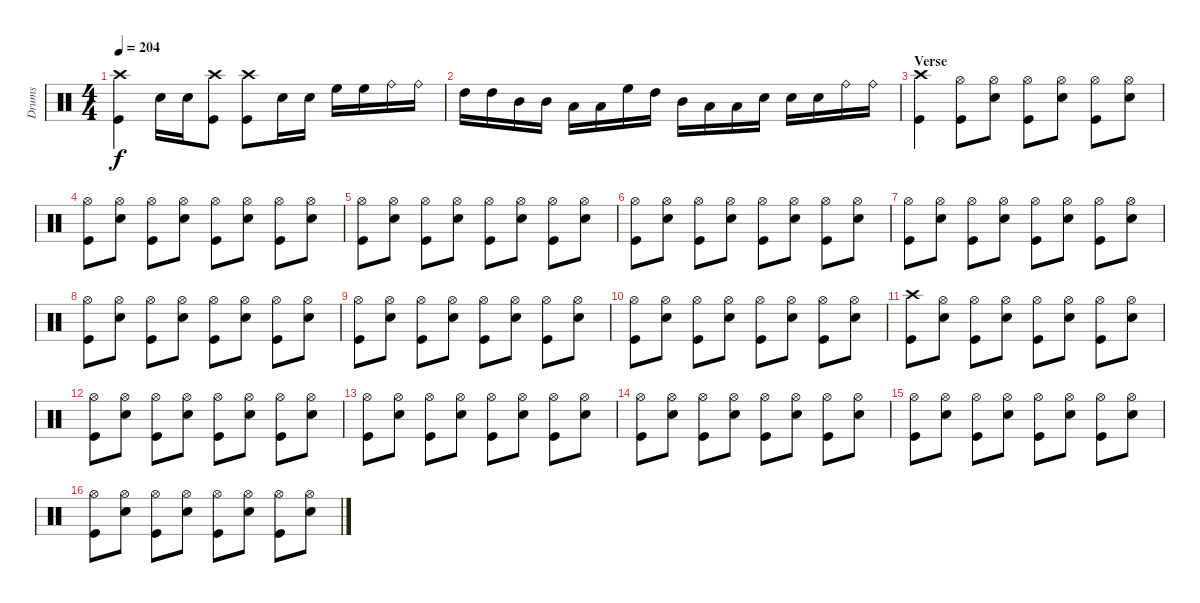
\track ("Drums" "Drums") {instrument percussion}
\staff {score}
\articulation defaults
\ts (4 4)
\tempo 204
\clef neutral
\ks c
("Crash high (hit)" "Kick (hit)").4{dy f} "Electric Snare (hit)".16 "Electric Snare (hit)".16 ("Crash high (hit)" "Kick (hit)").8 ("Crash high (hit)" "Kick (hit)").8 "Electric Snare (hit)".16 "Electric Snare (hit)".16 "High Floor Tom (hit)".16 "High Floor Tom (hit)".16 "Ride (bell)".16 "Ride (bell)".16 |
"High Tom (hit)".16 "High Tom (hit)".16 "Mid Tom (hit)".16 "Mid Tom (hit)".16 "Low Tom (hit)".16 "Low Tom (hit)".16 "High Floor Tom (hit)".16 "High Tom (hit)".16 "Mid Tom (hit)".16 "Low Tom (hit)".16 "Low Tom (hit)".16 "Electric Snare (hit)".16 "Electric Snare (hit)".16 "Electric Snare (hit)".16 "Ride (bell)".16 "Ride (bell)".16 |
\section ("" "Verse")
("Crash high (hit)" "Kick (hit)").4 ("Hi-Hat (open)" "Kick (hit)").8 ("Hi-Hat (open)" "Electric Snare (hit)").8 ("Hi-Hat (open)" "Kick (hit)").8 ("Hi-Hat (open)" "Electric Snare (hit)").8 ("Hi-Hat (open)" "Kick (hit)").8 ("Hi-Hat (open)" "Electric Snare (hit)").8 |
("Hi-Hat (open)" "Kick (hit)").8 ("Hi-Hat (open)" "Electric Snare (hit)").8 ("Hi-Hat (open)" "Kick (hit)").8 ("Hi-Hat (open)" "Electric Snare (hit)").8 ("Hi-Hat (open)" "Kick (hit)").8 ("Hi-Hat (open)" "Electric Snare (hit)").8 ("Hi-Hat (open)" "Kick (hit)").8 ("Hi-Hat (open)" "Electric Snare (hit)").8 |
("Hi-Hat (open)" "Kick (hit)").8 ("Hi-Hat (open)" "Electric Snare (hit)").8 ("Hi-Hat (open)" "Kick (hit)").8 ("Hi-Hat (open)" "Electric Snare (hit)").8 ("Hi-Hat (open)" "Kick (hit)").8 ("Hi-Hat (open)" "Electric Snare (hit)").8 ("Hi-Hat (open)" "Kick (hit)").8 ("Hi-Hat (open)" "Electric Snare (hit)").8 |
("Hi-Hat (open)" "Kick (hit)").8 ("Hi-Hat (open)" "Electric Snare (hit)").8 ("Hi-Hat (open)" "Kick (hit)").8 ("Hi-Hat (open)" "Electric Snare (hit)").8 ("Hi-Hat (open)" "Kick (hit)").8 ("Hi-Hat (open)" "Electric Snare (hit)").8 ("Hi-Hat (open)" "Kick (hit)").8 ("Hi-Hat (open)" "Electric Snare (hit)").8 |
("Hi-Hat (open)" "Kick (hit)").8 ("Hi-Hat (open)" "Electric Snare (hit)").8 ("Hi-Hat (open)" "Kick (hit)").8 ("Hi-Hat (open)" "Electric Snare (hit)").8 ("Hi-Hat (open)" "Kick (hit)").8 ("Hi-Hat (open)" "Electric Snare (hit)").8 ("Hi-Hat (open)" "Kick (hit)").8 ("Hi-Hat (open)" "Electric Snare (hit)").8 |
("Hi-Hat (open)" "Kick (hit)").8 ("Hi-Hat (open)" "Electric Snare (hit)").8 ("Hi-Hat (open)" "Kick (hit)").8 ("Hi-Hat (open)" "Electric Snare (hit)").8 ("Hi-Hat (open)" "Kick (hit)").8 ("Hi-Hat (open)" "Electric Snare (hit)").8 ("Hi-Hat (open)" "Kick (hit)").8 ("Hi-Hat (open)" "Electric Snare (hit)").8 |
("Hi-Hat (open)" "Kick (hit)").8 ("Hi-Hat (open)" "Electric Snare (hit)").8 ("Hi-Hat (open)" "Kick (hit)").8 ("Hi-Hat (open)" "Electric Snare (hit)").8 ("Hi-Hat (open)" "Kick (hit)").8 ("Hi-Hat (open)" "Electric Snare (hit)").8 ("Hi-Hat (open)" "Kick (hit)").8 ("Hi-Hat (open)" "Electric Snare (hit)").8 |
("Hi-Hat (open)" "Kick (hit)").8 ("Hi-Hat (open)" "Electric Snare (hit)").8 ("Hi-Hat (open)" "Kick (hit)").8 ("Hi-Hat (open)" "Electric Snare (hit)").8 ("Hi-Hat (open)" "Kick (hit)").8 ("Hi-Hat (open)" "Electric Snare (hit)").8 ("Hi-Hat (open)" "Kick (hit)").8 ("Hi-Hat (open)" "Electric Snare (hit)").8 |
("Crash high (hit)" "Kick (hit)").8 ("Hi-Hat (open)" "Electric Snare (hit)").8 ("Hi-Hat (open)" "Kick (hit)").8 ("Hi-Hat (open)" "Electric Snare (hit)").8 ("Hi-Hat (open)" "Kick (hit)").8 ("Hi-Hat (open)" "Electric Snare (hit)").8 ("Hi-Hat (open)" "Kick (hit)").8 ("Hi-Hat (open)" "Electric Snare (hit)").8 |
("Hi-Hat (open)" "Kick (hit)").8 ("Hi-Hat (open)" "Electric Snare (hit)").8 ("Hi-Hat (open)" "Kick (hit)").8 ("Hi-Hat (open)" "Electric Snare (hit)").8 ("Hi-Hat (open)" "Kick (hit)").8 ("Hi-Hat (open)" "Electric Snare (hit)").8 ("Hi-Hat (open)" "Kick (hit)").8 ("Hi-Hat (open)" "Electric Snare (hit)").8 |
("Hi-Hat (open)" "Kick (hit)").8 ("Hi-Hat (open)" "Electric Snare (hit)").8 ("Hi-Hat (open)" "Kick (hit)").8 ("Hi-Hat (open)" "Electric Snare (hit)").8 ("Hi-Hat (open)" "Kick (hit)").8 ("Hi-Hat (open)" "Electric Snare (hit)").8 ("Hi-Hat (open)" "Kick (hit)").8 ("Hi-Hat (open)" "Electric Snare (hit)").8 |
("Hi-Hat (open)" "Kick (hit)").8 ("Hi-Hat (open)" "Electric Snare (hit)").8 ("Hi-Hat (open)" "Kick (hit)").8 ("Hi-Hat (open)" "Electric Snare (hit)").8 ("Hi-Hat (open)" "Kick (hit)").8 ("Hi-Hat (open)" "Electric Snare (hit)").8 ("Hi-Hat (open)" "Kick (hit)").8 ("Hi-Hat (open)" "Electric Snare (hit)").8 |
("Hi-Hat (open)" "Kick (hit)").8 ("Hi-Hat (open)" "Electric Snare (hit)").8 ("Hi-Hat (open)" "Kick (hit)").8 ("Hi-Hat (open)" "Electric Snare (hit)").8 ("Hi-Hat (open)" "Kick (hit)").8 ("Hi-Hat (open)" "Electric Snare (hit)").8 ("Hi-Hat (open)" "Kick (hit)").8 ("Hi-Hat (open)" "Electric Snare (hit)").8 |
("Hi-Hat (open)" "Kick (hit)").8 ("Hi-Hat (open)" "Electric Snare (hit)").8 ("Hi-Hat (open)" "Kick (hit)").8 ("Hi-Hat (open)" "Electric Snare (hit)").8 ("Hi-Hat (open)" "Kick (hit)").8 ("Hi-Hat (open)" "Electric Snare (hit)").8 ("Hi-Hat (open)" "Kick (hit)").8 ("Hi-Hat (open)" "Electric Snare (hit)").8
